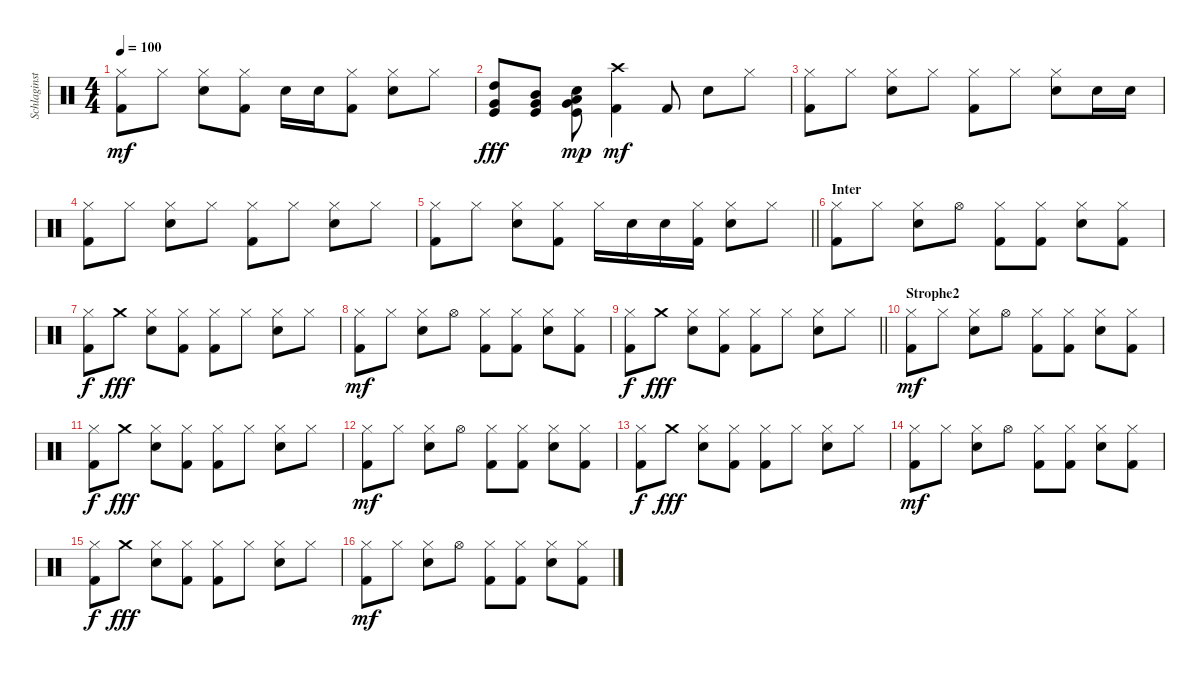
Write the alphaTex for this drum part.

\track ("Schlaginstrumente - Auswahl" "Schlaginst") {instrument percussion}
\staff {score}
\articulation defaults
\ts (4 4)
\tempo 100
\clef neutral
\ks c
("Hi-Hat (closed)" "Kick (hit) 2").8{dy mf} "Hi-Hat (closed)".8 ("Hi-Hat (closed)" "Snare (hit) 2").8 ("Hi-Hat (closed)" "Kick (hit) 2").8 "Snare (hit) 2".16 "Snare (hit) 2".16 ("Hi-Hat (closed)" "Kick (hit) 2").8 ("Hi-Hat (closed)" "Snare (hit) 2").8 "Hi-Hat (closed)".8 |
("Very Low Tom (hit)" "High Tom (hit)" "Kick (hit)").8{dy fff} ("Very Low Tom (hit)" "Mid Tom (hit)" "Kick (hit)").8 ("Very Low Tom (hit)" "Low Tom (hit)" "Kick (hit)" "Snare (hit)").8{dy mp} ("Crash high (hit)" "Kick (hit) 2").4{dy mf} "Kick (hit) 2".8 "Snare (hit) 2".8 "Hi-Hat (closed)".8 |
("Hi-Hat (closed)" "Kick (hit) 2").8 "Hi-Hat (closed)".8 ("Hi-Hat (closed)" "Snare (hit) 2").8 "Hi-Hat (closed)".8 ("Hi-Hat (closed)" "Kick (hit) 2").8 "Hi-Hat (closed)".8 ("Hi-Hat (closed)" "Snare (hit) 2").8 "Snare (hit) 2".16 "Snare (hit) 2".16 |
("Hi-Hat (closed)" "Kick (hit) 2").8 "Hi-Hat (closed)".8 ("Hi-Hat (closed)" "Snare (hit) 2").8 "Hi-Hat (closed)".8 ("Hi-Hat (closed)" "Kick (hit) 2").8 "Hi-Hat (closed)".8 ("Hi-Hat (closed)" "Snare (hit) 2").8 "Hi-Hat (closed)".8 |
\barLineRight lightlight
("Hi-Hat (closed)" "Kick (hit) 2").8 "Hi-Hat (closed)".8 ("Hi-Hat (closed)" "Snare (hit) 2").8 ("Hi-Hat (closed)" "Kick (hit) 2").8 "Hi-Hat (closed)".16 "Snare (hit) 2".16 "Snare (hit) 2".16 ("Hi-Hat (closed)" "Kick (hit) 2").16 ("Hi-Hat (closed)" "Snare (hit) 2").8 "Hi-Hat (closed)".8 |
\section ("" "Inter")
("Hi-Hat (closed)" "Kick (hit) 2").8 "Hi-Hat (closed)".8 ("Hi-Hat (closed)" "Snare (hit) 2").8 "Hi-Hat (open)".8 ("Hi-Hat (closed)" "Kick (hit) 2").8 ("Hi-Hat (closed)" "Kick (hit) 2").8 ("Hi-Hat (closed)" "Snare (hit) 2").8 ("Hi-Hat (closed)" "Kick (hit) 2").8 |
("Hi-Hat (closed)" "Kick (hit) 2").8{dy f} "Crash medium (hit)".8{dy fff} ("Hi-Hat (closed)" "Snare (hit) 2").8 ("Hi-Hat (closed)" "Kick (hit) 2").8 ("Hi-Hat (closed)" "Kick (hit) 2").8 "Hi-Hat (closed)".8 ("Hi-Hat (closed)" "Snare (hit) 2").8 "Hi-Hat (closed)".8 |
("Hi-Hat (closed)" "Kick (hit) 2").8{dy mf} "Hi-Hat (closed)".8 ("Hi-Hat (closed)" "Snare (hit) 2").8 "Hi-Hat (open)".8 ("Hi-Hat (closed)" "Kick (hit) 2").8 ("Hi-Hat (closed)" "Kick (hit) 2").8 ("Hi-Hat (closed)" "Snare (hit) 2").8 ("Hi-Hat (closed)" "Kick (hit) 2").8 |
\barLineRight lightlight
("Hi-Hat (closed)" "Kick (hit) 2").8{dy f} "Crash medium (hit)".8{dy fff} ("Hi-Hat (closed)" "Snare (hit) 2").8 ("Hi-Hat (closed)" "Kick (hit) 2").8 ("Hi-Hat (closed)" "Kick (hit) 2").8 "Hi-Hat (closed)".8 ("Hi-Hat (closed)" "Snare (hit) 2").8 "Hi-Hat (closed)".8 |
\section ("" "Strophe2")
("Hi-Hat (closed)" "Kick (hit) 2").8{dy mf} "Hi-Hat (closed)".8 ("Hi-Hat (closed)" "Snare (hit) 2").8 "Hi-Hat (open)".8 ("Hi-Hat (closed)" "Kick (hit) 2").8 ("Hi-Hat (closed)" "Kick (hit) 2").8 ("Hi-Hat (closed)" "Snare (hit) 2").8 ("Hi-Hat (closed)" "Kick (hit) 2").8 |
("Hi-Hat (closed)" "Kick (hit) 2").8{dy f} "Crash medium (hit)".8{dy fff} ("Hi-Hat (closed)" "Snare (hit) 2").8 ("Hi-Hat (closed)" "Kick (hit) 2").8 ("Hi-Hat (closed)" "Kick (hit) 2").8 "Hi-Hat (closed)".8 ("Hi-Hat (closed)" "Snare (hit) 2").8 "Hi-Hat (closed)".8 |
("Hi-Hat (closed)" "Kick (hit) 2").8{dy mf} "Hi-Hat (closed)".8 ("Hi-Hat (closed)" "Snare (hit) 2").8 "Hi-Hat (open)".8 ("Hi-Hat (closed)" "Kick (hit) 2").8 ("Hi-Hat (closed)" "Kick (hit) 2").8 ("Hi-Hat (closed)" "Snare (hit) 2").8 ("Hi-Hat (closed)" "Kick (hit) 2").8 |
("Hi-Hat (closed)" "Kick (hit) 2").8{dy f} "Crash medium (hit)".8{dy fff} ("Hi-Hat (closed)" "Snare (hit) 2").8 ("Hi-Hat (closed)" "Kick (hit) 2").8 ("Hi-Hat (closed)" "Kick (hit) 2").8 "Hi-Hat (closed)".8 ("Hi-Hat (closed)" "Snare (hit) 2").8 "Hi-Hat (closed)".8 |
("Hi-Hat (closed)" "Kick (hit) 2").8{dy mf} "Hi-Hat (closed)".8 ("Hi-Hat (closed)" "Snare (hit) 2").8 "Hi-Hat (open)".8 ("Hi-Hat (closed)" "Kick (hit) 2").8 ("Hi-Hat (closed)" "Kick (hit) 2").8 ("Hi-Hat (closed)" "Snare (hit) 2").8 ("Hi-Hat (closed)" "Kick (hit) 2").8 |
("Hi-Hat (closed)" "Kick (hit) 2").8{dy f} "Crash medium (hit)".8{dy fff} ("Hi-Hat (closed)" "Snare (hit) 2").8 ("Hi-Hat (closed)" "Kick (hit) 2").8 ("Hi-Hat (closed)" "Kick (hit) 2").8 "Hi-Hat (closed)".8 ("Hi-Hat (closed)" "Snare (hit) 2").8 "Hi-Hat (closed)".8 |
("Hi-Hat (closed)" "Kick (hit) 2").8{dy mf} "Hi-Hat (closed)".8 ("Hi-Hat (closed)" "Snare (hit) 2").8 "Hi-Hat (open)".8 ("Hi-Hat (closed)" "Kick (hit) 2").8 ("Hi-Hat (closed)" "Kick (hit) 2").8 ("Hi-Hat (closed)" "Snare (hit) 2").8 ("Hi-Hat (closed)" "Kick (hit) 2").8
